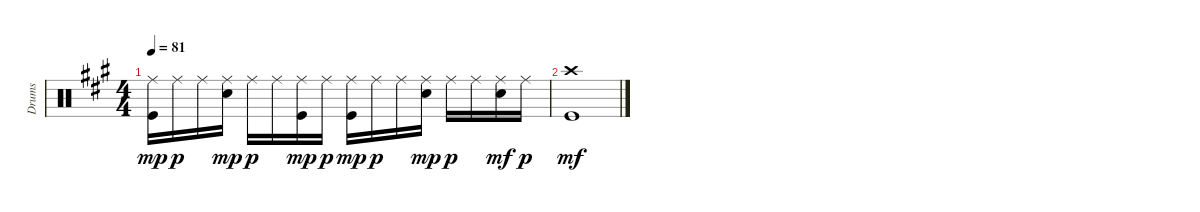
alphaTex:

\track ("Drums" "Drums") {instrument percussion}
\staff {score}
\articulation defaults
\ts (4 4)
\tempo 81
\clef neutral
\ks f#minor
("Ride (middle)" "Kick (hit)").16{dy mp} "Ride (middle)".16{dy p} "Ride (middle)".16 ("Ride (middle)" "Electric Snare (hit)").16{dy mp} "Ride (middle)".16{dy p} "Ride (middle)".16 ("Ride (middle)" "Kick (hit)").16{dy mp} "Ride (middle)".16{dy p} ("Ride (middle)" "Kick (hit)").16{dy mp} "Ride (middle)".16{dy p} "Ride (middle)".16 ("Ride (middle)" "Electric Snare (hit)").16{dy mp} "Ride (middle)".16{dy p} "Ride (middle)".16 ("Ride (middle)" "Electric Snare (hit)").16{dy mf} "Ride (middle)".16{dy p} |
("Crash high (hit)" "Kick (hit)").1{dy mf}
